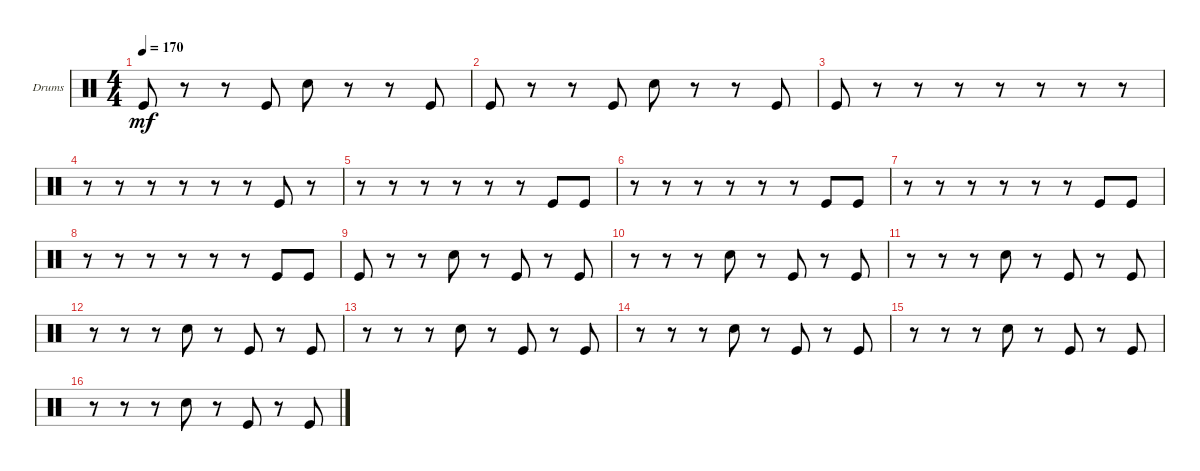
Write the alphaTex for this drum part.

\defaultSystemsLayout 4
\bracketExtendMode groupsimilarinstruments
\firstSystemTrackNameOrientation horizontal
\otherSystemsTrackNameOrientation horizontal
\track ("Drumkit" "Drums") {instrument percussion}
\staff {score}
\articulation defaults
\ts (4 4)
\tempo 170
\clef neutral
\ks c "Kick (hit)".8{dy mf}
r.8 r.8 "Kick (hit)".8 "Snare (hit) 2".8 r.8 r.8 "Kick (hit)".8 |
"Kick (hit)".8 r.8 r.8 "Kick (hit)".8 "Snare (hit) 2".8 r.8 r.8 "Kick (hit)".8 |
"Kick (hit)".8 r.8 r.8 r.8 r.8 r.8 r.8 r.8 |
r.8 r.8 r.8 r.8 r.8 r.8 "Kick (hit)".8 r.8 |
r.8 r.8 r.8 r.8 r.8 r.8 "Kick (hit)".8 "Kick (hit)".8 |
r.8 r.8 r.8 r.8 r.8 r.8 "Kick (hit)".8 "Kick (hit)".8 |
r.8 r.8 r.8 r.8 r.8 r.8 "Kick (hit)".8 "Kick (hit)".8 |
r.8 r.8 r.8 r.8 r.8 r.8 "Kick (hit)".8 "Kick (hit)".8 |
"Kick (hit)".8 r.8 r.8 "Snare (hit) 2".8 r.8 "Kick (hit)".8 r.8 "Kick (hit)".8 |
r.8 r.8 r.8 "Snare (hit) 2".8 r.8 "Kick (hit)".8 r.8 "Kick (hit)".8 |
r.8 r.8 r.8 "Snare (hit) 2".8 r.8 "Kick (hit)".8 r.8 "Kick (hit)".8 |
r.8 r.8 r.8 "Snare (hit) 2".8 r.8 "Kick (hit)".8 r.8 "Kick (hit)".8 |
r.8 r.8 r.8 "Snare (hit) 2".8 r.8 "Kick (hit)".8 r.8 "Kick (hit)".8 |
r.8 r.8 r.8 "Snare (hit) 2".8 r.8 "Kick (hit)".8 r.8 "Kick (hit)".8 |
r.8 r.8 r.8 "Snare (hit) 2".8 r.8 "Kick (hit)".8 r.8 "Kick (hit)".8 |
r.8 r.8 r.8 "Snare (hit) 2".8 r.8 "Kick (hit)".8 r.8 "Kick (hit)".8
